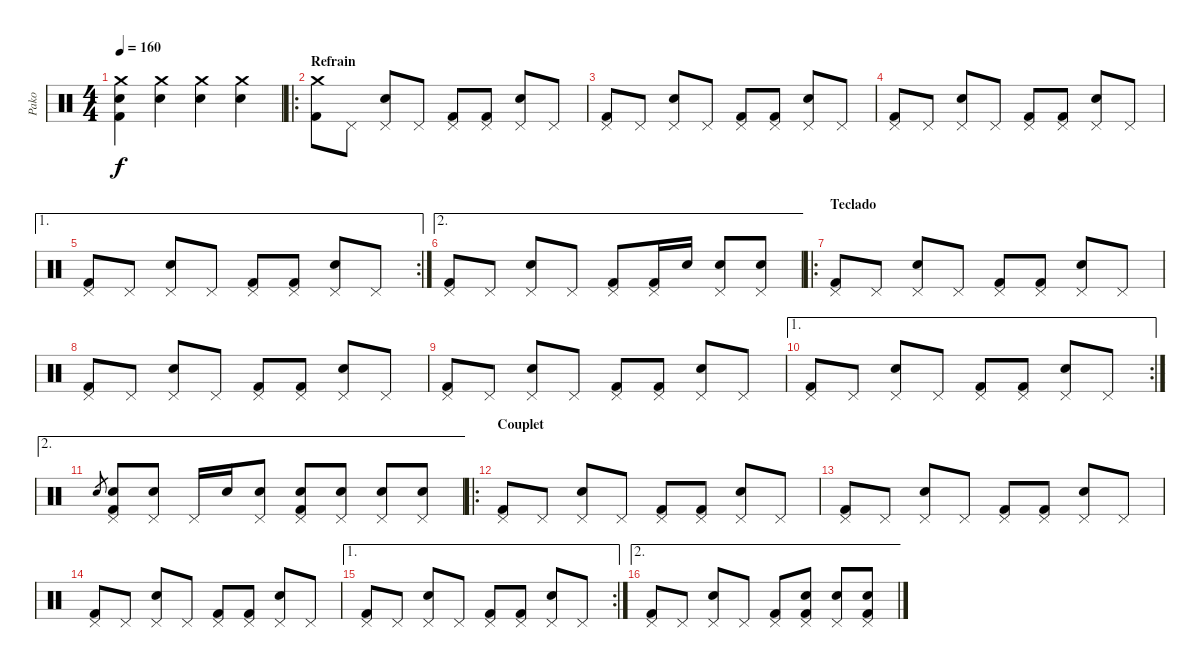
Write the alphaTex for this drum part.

\track ("Pako" "Pako") {instrument percussion}
\staff {score}
\articulation defaults
\ts (4 4)
\tempo 160
\clef neutral
\ks c
("Crash medium (hit)" "Snare (hit) 2" "Kick (hit) 2").4{dy f} ("Crash medium (hit)" "Snare (hit) 2").4 ("Crash medium (hit)" "Snare (hit) 2").4 ("Crash medium (hit)" "Snare (hit) 2").4 |
\ro
\section ("" "Refrain")
("Crash medium (hit)" "Kick (hit) 2").8 "Pedal Hi-Hat (hit)".8 ("Pedal Hi-Hat (hit)" "Snare (hit) 2").8 "Pedal Hi-Hat (hit)".8 ("Pedal Hi-Hat (hit)" "Kick (hit) 2").8 ("Pedal Hi-Hat (hit)" "Kick (hit) 2").8 ("Pedal Hi-Hat (hit)" "Snare (hit) 2").8 "Pedal Hi-Hat (hit)".8 |
("Pedal Hi-Hat (hit)" "Kick (hit) 2").8 "Pedal Hi-Hat (hit)".8 ("Pedal Hi-Hat (hit)" "Snare (hit) 2").8 "Pedal Hi-Hat (hit)".8 ("Pedal Hi-Hat (hit)" "Kick (hit) 2").8 ("Pedal Hi-Hat (hit)" "Kick (hit) 2").8 ("Pedal Hi-Hat (hit)" "Snare (hit) 2").8 "Pedal Hi-Hat (hit)".8 |
("Pedal Hi-Hat (hit)" "Kick (hit) 2").8 "Pedal Hi-Hat (hit)".8 ("Pedal Hi-Hat (hit)" "Snare (hit) 2").8 "Pedal Hi-Hat (hit)".8 ("Pedal Hi-Hat (hit)" "Kick (hit) 2").8 ("Pedal Hi-Hat (hit)" "Kick (hit) 2").8 ("Pedal Hi-Hat (hit)" "Snare (hit) 2").8 "Pedal Hi-Hat (hit)".8 |
\ae 1
\rc 2
("Pedal Hi-Hat (hit)" "Kick (hit) 2").8 "Pedal Hi-Hat (hit)".8 ("Pedal Hi-Hat (hit)" "Snare (hit) 2").8 "Pedal Hi-Hat (hit)".8 ("Pedal Hi-Hat (hit)" "Kick (hit) 2").8 ("Pedal Hi-Hat (hit)" "Kick (hit) 2").8 ("Pedal Hi-Hat (hit)" "Snare (hit) 2").8 "Pedal Hi-Hat (hit)".8 |
\ae 2
("Pedal Hi-Hat (hit)" "Kick (hit) 2").8 "Pedal Hi-Hat (hit)".8 ("Pedal Hi-Hat (hit)" "Snare (hit) 2").8 "Pedal Hi-Hat (hit)".8 ("Pedal Hi-Hat (hit)" "Kick (hit) 2").8 ("Pedal Hi-Hat (hit)" "Kick (hit) 2").16 "Snare (hit) 2".16 ("Pedal Hi-Hat (hit)" "Snare (hit) 2").8 ("Pedal Hi-Hat (hit)" "Snare (hit) 2").8 |
\ro
\section ("" "Teclado")
("Pedal Hi-Hat (hit)" "Kick (hit) 2").8 "Pedal Hi-Hat (hit)".8 ("Pedal Hi-Hat (hit)" "Snare (hit) 2").8 "Pedal Hi-Hat (hit)".8 ("Pedal Hi-Hat (hit)" "Kick (hit) 2").8 ("Pedal Hi-Hat (hit)" "Kick (hit) 2").8 ("Pedal Hi-Hat (hit)" "Snare (hit) 2").8 "Pedal Hi-Hat (hit)".8 |
("Pedal Hi-Hat (hit)" "Kick (hit) 2").8 "Pedal Hi-Hat (hit)".8 ("Pedal Hi-Hat (hit)" "Snare (hit) 2").8 "Pedal Hi-Hat (hit)".8 ("Pedal Hi-Hat (hit)" "Kick (hit) 2").8 ("Pedal Hi-Hat (hit)" "Kick (hit) 2").8 ("Pedal Hi-Hat (hit)" "Snare (hit) 2").8 "Pedal Hi-Hat (hit)".8 |
("Pedal Hi-Hat (hit)" "Kick (hit) 2").8 "Pedal Hi-Hat (hit)".8 ("Pedal Hi-Hat (hit)" "Snare (hit) 2").8 "Pedal Hi-Hat (hit)".8 ("Pedal Hi-Hat (hit)" "Kick (hit) 2").8 ("Pedal Hi-Hat (hit)" "Kick (hit) 2").8 ("Pedal Hi-Hat (hit)" "Snare (hit) 2").8 "Pedal Hi-Hat (hit)".8 |
\ae 1
\rc 2
("Pedal Hi-Hat (hit)" "Kick (hit) 2").8 "Pedal Hi-Hat (hit)".8 ("Pedal Hi-Hat (hit)" "Snare (hit) 2").8 "Pedal Hi-Hat (hit)".8 ("Pedal Hi-Hat (hit)" "Kick (hit) 2").8 ("Pedal Hi-Hat (hit)" "Kick (hit) 2").8 ("Pedal Hi-Hat (hit)" "Snare (hit) 2").8 "Pedal Hi-Hat (hit)".8 |
\ae 2 "Snare (hit) 2".8{gr}
("Pedal Hi-Hat (hit)" "Snare (hit) 2" "Kick (hit) 2").8 ("Pedal Hi-Hat (hit)" "Snare (hit) 2").8 "Pedal Hi-Hat (hit)".16 "Snare (hit) 2".16 ("Pedal Hi-Hat (hit)" "Snare (hit) 2").8 ("Pedal Hi-Hat (hit)" "Snare (hit) 2" "Kick (hit) 2").8 ("Pedal Hi-Hat (hit)" "Snare (hit) 2").8 ("Pedal Hi-Hat (hit)" "Snare (hit) 2").8 ("Pedal Hi-Hat (hit)" "Snare (hit) 2").8 |
\ro
\section ("" "Couplet")
("Pedal Hi-Hat (hit)" "Kick (hit) 2").8 "Pedal Hi-Hat (hit)".8 ("Pedal Hi-Hat (hit)" "Snare (hit) 2").8 "Pedal Hi-Hat (hit)".8 ("Pedal Hi-Hat (hit)" "Kick (hit) 2").8 ("Pedal Hi-Hat (hit)" "Kick (hit) 2").8 ("Pedal Hi-Hat (hit)" "Snare (hit) 2").8 "Pedal Hi-Hat (hit)".8 |
("Pedal Hi-Hat (hit)" "Kick (hit) 2").8 "Pedal Hi-Hat (hit)".8 ("Pedal Hi-Hat (hit)" "Snare (hit) 2").8 "Pedal Hi-Hat (hit)".8 ("Pedal Hi-Hat (hit)" "Kick (hit) 2").8 ("Pedal Hi-Hat (hit)" "Kick (hit) 2").8 ("Pedal Hi-Hat (hit)" "Snare (hit) 2").8 "Pedal Hi-Hat (hit)".8 |
("Pedal Hi-Hat (hit)" "Kick (hit) 2").8 "Pedal Hi-Hat (hit)".8 ("Pedal Hi-Hat (hit)" "Snare (hit) 2").8 "Pedal Hi-Hat (hit)".8 ("Pedal Hi-Hat (hit)" "Kick (hit) 2").8 ("Pedal Hi-Hat (hit)" "Kick (hit) 2").8 ("Pedal Hi-Hat (hit)" "Snare (hit) 2").8 "Pedal Hi-Hat (hit)".8 |
\ae 1
\rc 2
("Pedal Hi-Hat (hit)" "Kick (hit) 2").8 "Pedal Hi-Hat (hit)".8 ("Pedal Hi-Hat (hit)" "Snare (hit) 2").8 "Pedal Hi-Hat (hit)".8 ("Pedal Hi-Hat (hit)" "Kick (hit) 2").8 ("Pedal Hi-Hat (hit)" "Kick (hit) 2").8 ("Pedal Hi-Hat (hit)" "Snare (hit) 2").8 "Pedal Hi-Hat (hit)".8 |
\ae 2
("Pedal Hi-Hat (hit)" "Kick (hit) 2").8 "Pedal Hi-Hat (hit)".8 ("Pedal Hi-Hat (hit)" "Snare (hit) 2").8 "Pedal Hi-Hat (hit)".8 ("Pedal Hi-Hat (hit)" "Kick (hit) 2").8 ("Pedal Hi-Hat (hit)" "Snare (hit) 2" "Kick (hit) 2").8 ("Pedal Hi-Hat (hit)" "Snare (hit) 2").8 ("Pedal Hi-Hat (hit)" "Snare (hit) 2" "Kick (hit) 2").8
